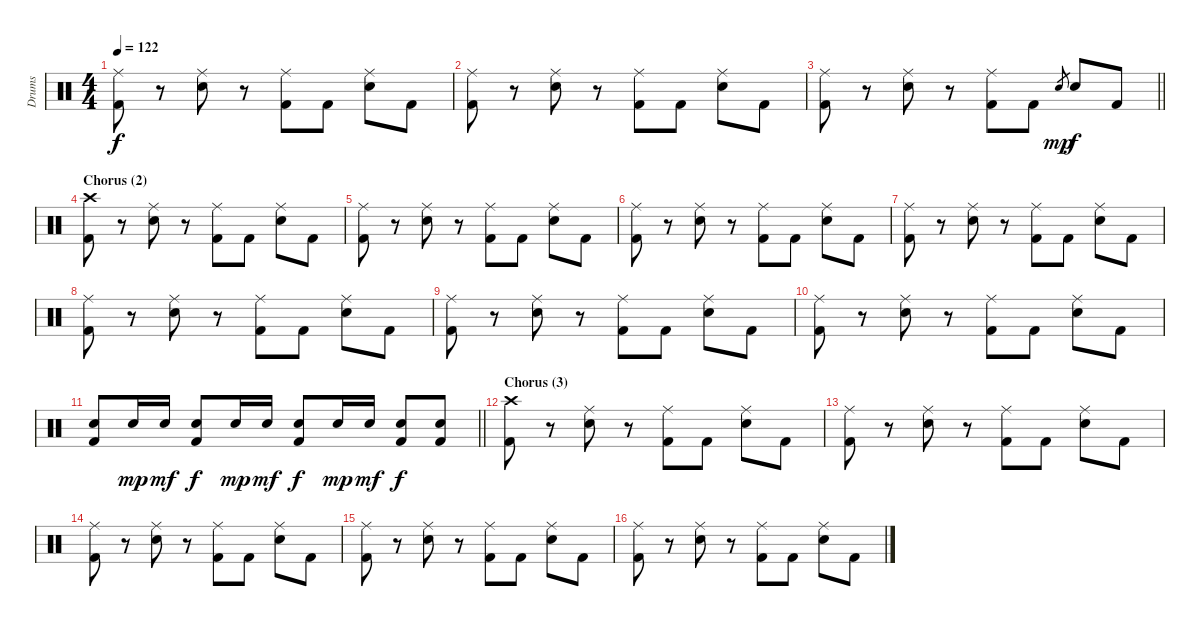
\track ("Drums" "Drums") {instrument percussion}
\staff {score}
\articulation defaults
\ts (4 4)
\tempo 122
\clef neutral
\ks c
("Kick (hit) 2" "Ride (middle)").8{dy f} r.8 ("Snare (hit) 2" "Ride (middle)").8 r.8 ("Kick (hit) 2" "Ride (middle)").8 "Kick (hit) 2".8 ("Snare (hit) 2" "Ride (middle)").8 "Kick (hit) 2".8 |
("Kick (hit) 2" "Ride (middle)").8 r.8 ("Snare (hit) 2" "Ride (middle)").8 r.8 ("Kick (hit) 2" "Ride (middle)").8 "Kick (hit) 2".8 ("Snare (hit) 2" "Ride (middle)").8 "Kick (hit) 2".8 |
\barLineRight lightlight
("Kick (hit) 2" "Ride (middle)").8 r.8 ("Snare (hit) 2" "Ride (middle)").8 r.8 ("Kick (hit) 2" "Ride (middle)").8 "Kick (hit) 2".8 "Snare (hit) 2".8{gr dy mp} "Snare (hit) 2".8{dy f} "Kick (hit) 2".8 |
\section ("" "Chorus (2)")
("Kick (hit) 2" "Crash high (hit)").8 r.8 ("Snare (hit) 2" "Ride (middle)").8 r.8 ("Kick (hit) 2" "Ride (middle)").8 "Kick (hit) 2".8 ("Snare (hit) 2" "Ride (middle)").8 "Kick (hit) 2".8 |
("Kick (hit) 2" "Ride (middle)").8 r.8 ("Snare (hit) 2" "Ride (middle)").8 r.8 ("Kick (hit) 2" "Ride (middle)").8 "Kick (hit) 2".8 ("Snare (hit) 2" "Ride (middle)").8 "Kick (hit) 2".8 |
("Kick (hit) 2" "Ride (middle)").8 r.8 ("Snare (hit) 2" "Ride (middle)").8 r.8 ("Kick (hit) 2" "Ride (middle)").8 "Kick (hit) 2".8 ("Snare (hit) 2" "Ride (middle)").8 "Kick (hit) 2".8 |
("Kick (hit) 2" "Ride (middle)").8 r.8 ("Snare (hit) 2" "Ride (middle)").8 r.8 ("Kick (hit) 2" "Ride (middle)").8 "Kick (hit) 2".8 ("Snare (hit) 2" "Ride (middle)").8 "Kick (hit) 2".8 |
("Kick (hit) 2" "Ride (middle)").8 r.8 ("Snare (hit) 2" "Ride (middle)").8 r.8 ("Kick (hit) 2" "Ride (middle)").8 "Kick (hit) 2".8 ("Snare (hit) 2" "Ride (middle)").8 "Kick (hit) 2".8 |
("Kick (hit) 2" "Ride (middle)").8 r.8 ("Snare (hit) 2" "Ride (middle)").8 r.8 ("Kick (hit) 2" "Ride (middle)").8 "Kick (hit) 2".8 ("Snare (hit) 2" "Ride (middle)").8 "Kick (hit) 2".8 |
("Kick (hit) 2" "Ride (middle)").8 r.8 ("Snare (hit) 2" "Ride (middle)").8 r.8 ("Kick (hit) 2" "Ride (middle)").8 "Kick (hit) 2".8 ("Snare (hit) 2" "Ride (middle)").8 "Kick (hit) 2".8 |
\barLineRight lightlight
("Kick (hit) 2" "Snare (hit) 2").8 "Snare (hit) 2".16{dy mp} "Snare (hit) 2".16{dy mf} ("Kick (hit) 2" "Snare (hit) 2").8{dy f} "Snare (hit) 2".16{dy mp} "Snare (hit) 2".16{dy mf} ("Kick (hit) 2" "Snare (hit) 2").8{dy f} "Snare (hit) 2".16{dy mp} "Snare (hit) 2".16{dy mf} ("Kick (hit) 2" "Snare (hit) 2").8{dy f} ("Kick (hit) 2" "Snare (hit) 2").8 |
\section ("" "Chorus (3)")
("Kick (hit) 2" "Crash high (hit)").8 r.8 ("Snare (hit) 2" "Ride (middle)").8 r.8 ("Kick (hit) 2" "Ride (middle)").8 "Kick (hit) 2".8 ("Snare (hit) 2" "Ride (middle)").8 "Kick (hit) 2".8 |
("Kick (hit) 2" "Ride (middle)").8 r.8 ("Snare (hit) 2" "Ride (middle)").8 r.8 ("Kick (hit) 2" "Ride (middle)").8 "Kick (hit) 2".8 ("Snare (hit) 2" "Ride (middle)").8 "Kick (hit) 2".8 |
("Kick (hit) 2" "Ride (middle)").8 r.8 ("Snare (hit) 2" "Ride (middle)").8 r.8 ("Kick (hit) 2" "Ride (middle)").8 "Kick (hit) 2".8 ("Snare (hit) 2" "Ride (middle)").8 "Kick (hit) 2".8 |
("Kick (hit) 2" "Ride (middle)").8 r.8 ("Snare (hit) 2" "Ride (middle)").8 r.8 ("Kick (hit) 2" "Ride (middle)").8 "Kick (hit) 2".8 ("Snare (hit) 2" "Ride (middle)").8 "Kick (hit) 2".8 |
("Kick (hit) 2" "Ride (middle)").8 r.8 ("Snare (hit) 2" "Ride (middle)").8 r.8 ("Kick (hit) 2" "Ride (middle)").8 "Kick (hit) 2".8 ("Snare (hit) 2" "Ride (middle)").8 "Kick (hit) 2".8
